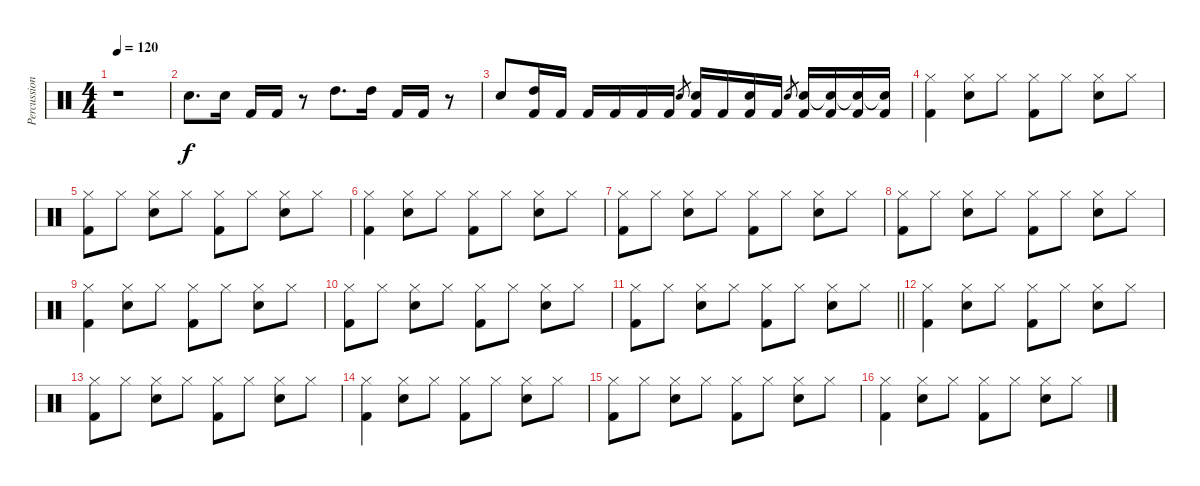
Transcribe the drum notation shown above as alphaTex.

\track ("Percussion" "Percussion") {instrument percussion}
\staff {score}
\articulation defaults
\ts (4 4)
\tempo 120
\clef neutral
\ks c
r.1{dy f} |
"Snare (hit) 2".8{d} "Snare (hit) 2".16 "Kick (hit) 2".16 "Kick (hit) 2".16 r.8 "High Tom (hit)".8{d} "High Tom (hit)".16 "Kick (hit) 2".16 "Kick (hit) 2".16 r.8 |
"Snare (hit) 2".8 ("High Tom (hit)" "Kick (hit) 2").16 "Kick (hit) 2".16 "Kick (hit) 2".16 "Kick (hit) 2".16 "Kick (hit) 2".16 "Kick (hit) 2".16 "Snare (hit) 2".8{gr} ("Snare (hit) 2" "Kick (hit) 2").16 "Kick (hit) 2".16 ("Snare (hit) 2" "Kick (hit) 2").16 "Kick (hit) 2".16 "Snare (hit) 2".8{gr} ("Snare (hit) 2" "Kick (hit) 2").16 ("Snare (hit)"{t} "Kick (hit) 2").16 ("Snare (hit)"{t} "Kick (hit) 2").16 ("Snare (hit)"{t} "Kick (hit) 2").16 |
("Hi-Hat (closed)" "Kick (hit) 2").4 ("Hi-Hat (closed)" "Snare (hit) 2").8 "Hi-Hat (closed)".8 ("Hi-Hat (closed)" "Kick (hit) 2").8 "Hi-Hat (closed)".8 ("Hi-Hat (closed)" "Snare (hit) 2").8 "Hi-Hat (closed)".8 |
("Hi-Hat (closed)" "Kick (hit) 2").8 "Hi-Hat (closed)".8 ("Hi-Hat (closed)" "Snare (hit) 2").8 "Hi-Hat (closed)".8 ("Hi-Hat (closed)" "Kick (hit) 2").8 "Hi-Hat (closed)".8 ("Hi-Hat (closed)" "Snare (hit) 2").8 "Hi-Hat (closed)".8 |
("Hi-Hat (closed)" "Kick (hit) 2").4 ("Hi-Hat (closed)" "Snare (hit) 2").8 "Hi-Hat (closed)".8 ("Hi-Hat (closed)" "Kick (hit) 2").8 "Hi-Hat (closed)".8 ("Hi-Hat (closed)" "Snare (hit) 2").8 "Hi-Hat (closed)".8 |
("Hi-Hat (closed)" "Kick (hit) 2").8 "Hi-Hat (closed)".8 ("Hi-Hat (closed)" "Snare (hit) 2").8 "Hi-Hat (closed)".8 ("Hi-Hat (closed)" "Kick (hit) 2").8 "Hi-Hat (closed)".8 ("Hi-Hat (closed)" "Snare (hit) 2").8 "Hi-Hat (closed)".8 |
("Hi-Hat (closed)" "Kick (hit) 2").8 "Hi-Hat (closed)".8 ("Hi-Hat (closed)" "Snare (hit) 2").8 "Hi-Hat (closed)".8 ("Hi-Hat (closed)" "Kick (hit) 2").8 "Hi-Hat (closed)".8 ("Hi-Hat (closed)" "Snare (hit) 2").8 "Hi-Hat (closed)".8 |
("Hi-Hat (closed)" "Kick (hit) 2").4 ("Hi-Hat (closed)" "Snare (hit) 2").8 "Hi-Hat (closed)".8 ("Hi-Hat (closed)" "Kick (hit) 2").8 "Hi-Hat (closed)".8 ("Hi-Hat (closed)" "Snare (hit) 2").8 "Hi-Hat (closed)".8 |
("Hi-Hat (closed)" "Kick (hit) 2").8 "Hi-Hat (closed)".8 ("Hi-Hat (closed)" "Snare (hit) 2").8 "Hi-Hat (closed)".8 ("Hi-Hat (closed)" "Kick (hit) 2").8 "Hi-Hat (closed)".8 ("Hi-Hat (closed)" "Snare (hit) 2").8 "Hi-Hat (closed)".8 |
\barLineRight lightlight
("Hi-Hat (closed)" "Kick (hit) 2").8 "Hi-Hat (closed)".8 ("Hi-Hat (closed)" "Snare (hit) 2").8 "Hi-Hat (closed)".8 ("Hi-Hat (closed)" "Kick (hit) 2").8 "Hi-Hat (closed)".8 ("Hi-Hat (closed)" "Snare (hit) 2").8 "Hi-Hat (closed)".8 |
("Hi-Hat (closed)" "Kick (hit) 2").4 ("Hi-Hat (closed)" "Snare (hit) 2").8 "Hi-Hat (closed)".8 ("Hi-Hat (closed)" "Kick (hit) 2").8 "Hi-Hat (closed)".8 ("Hi-Hat (closed)" "Snare (hit) 2").8 "Hi-Hat (closed)".8 |
("Hi-Hat (closed)" "Kick (hit) 2").8 "Hi-Hat (closed)".8 ("Hi-Hat (closed)" "Snare (hit) 2").8 "Hi-Hat (closed)".8 ("Hi-Hat (closed)" "Kick (hit) 2").8 "Hi-Hat (closed)".8 ("Hi-Hat (closed)" "Snare (hit) 2").8 "Hi-Hat (closed)".8 |
("Hi-Hat (closed)" "Kick (hit) 2").4 ("Hi-Hat (closed)" "Snare (hit) 2").8 "Hi-Hat (closed)".8 ("Hi-Hat (closed)" "Kick (hit) 2").8 "Hi-Hat (closed)".8 ("Hi-Hat (closed)" "Snare (hit) 2").8 "Hi-Hat (closed)".8 |
("Hi-Hat (closed)" "Kick (hit) 2").8 "Hi-Hat (closed)".8 ("Hi-Hat (closed)" "Snare (hit) 2").8 "Hi-Hat (closed)".8 ("Hi-Hat (closed)" "Kick (hit) 2").8 "Hi-Hat (closed)".8 ("Hi-Hat (closed)" "Snare (hit) 2").8 "Hi-Hat (closed)".8 |
("Hi-Hat (closed)" "Kick (hit) 2").4 ("Hi-Hat (closed)" "Snare (hit) 2").8 "Hi-Hat (closed)".8 ("Hi-Hat (closed)" "Kick (hit) 2").8 "Hi-Hat (closed)".8 ("Hi-Hat (closed)" "Snare (hit) 2").8 "Hi-Hat (closed)".8
